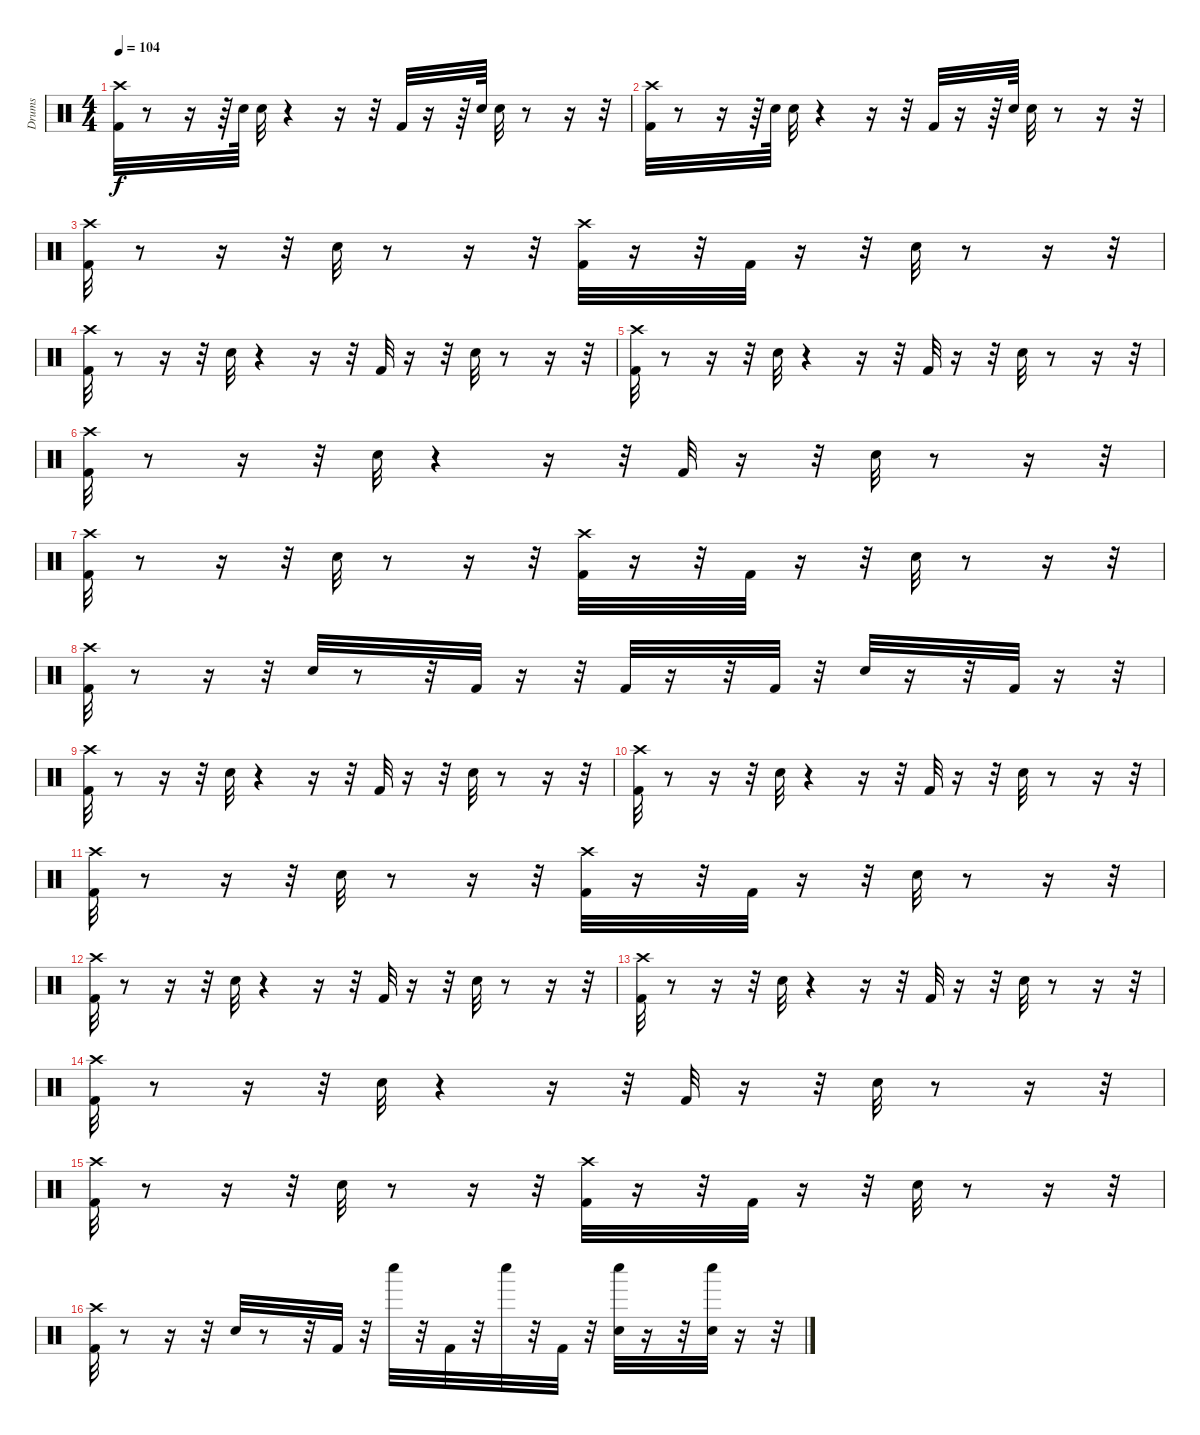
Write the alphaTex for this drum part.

\track ("Drums" "Drums") {instrument percussion}
\staff {score}
\articulation defaults
\ts (4 4)
\tempo 104
\clef neutral
\ks c
("Kick (hit) 2" "Crash high (hit)").32{dy f} r.8 r.16 r.64 "Snare (hit) 2".64 "Snare (hit) 2".32 r.4 r.16 r.32 "Kick (hit) 2".32 r.16 r.64 "Snare (hit) 2".64 "Snare (hit) 2".32 r.8 r.16 r.32 |
("Kick (hit) 2" "Crash high (hit)").32 r.8 r.16 r.64 "Snare (hit) 2".64 "Snare (hit) 2".32 r.4 r.16 r.32 "Kick (hit) 2".32 r.16 r.64 "Snare (hit) 2".64 "Snare (hit) 2".32 r.8 r.16 r.32 |
("Kick (hit) 2" "Crash high (hit)").32 r.8 r.16 r.32 "Snare (hit) 2".32 r.8 r.16 r.32 ("Kick (hit) 2" "Crash high (hit)").32 r.16 r.32 "Kick (hit) 2".32 r.16 r.32 "Snare (hit) 2".32 r.8 r.16 r.32 |
("Kick (hit) 2" "Crash high (hit)").32 r.8 r.16 r.32 "Snare (hit) 2".32 r.4 r.16 r.32 "Kick (hit) 2".32 r.16 r.32 "Snare (hit) 2".32 r.8 r.16 r.32 |
("Kick (hit) 2" "Crash high (hit)").32 r.8 r.16 r.32 "Snare (hit) 2".32 r.4 r.16 r.32 "Kick (hit) 2".32 r.16 r.32 "Snare (hit) 2".32 r.8 r.16 r.32 |
("Kick (hit) 2" "Crash high (hit)").32 r.8 r.16 r.32 "Snare (hit) 2".32 r.4 r.16 r.32 "Kick (hit) 2".32 r.16 r.32 "Snare (hit) 2".32 r.8 r.16 r.32 |
("Kick (hit) 2" "Crash high (hit)").32 r.8 r.16 r.32 "Snare (hit) 2".32 r.8 r.16 r.32 ("Kick (hit) 2" "Crash high (hit)").32 r.16 r.32 "Kick (hit) 2".32 r.16 r.32 "Snare (hit) 2".32 r.8 r.16 r.32 |
("Kick (hit) 2" "Crash high (hit)").32 r.8 r.16 r.32 "Snare (hit) 2".32 r.8 r.32 "Kick (hit) 2".32 r.16 r.32 "Kick (hit) 2".32 r.16 r.32 "Kick (hit) 2".32 r.32 "Snare (hit) 2".32 r.16 r.32 "Kick (hit) 2".32 r.16 r.32 |
("Kick (hit) 2" "Crash high (hit)").32 r.8 r.16 r.32 "Snare (hit) 2".32 r.4 r.16 r.32 "Kick (hit) 2".32 r.16 r.32 "Snare (hit) 2".32 r.8 r.16 r.32 |
("Kick (hit) 2" "Crash high (hit)").32 r.8 r.16 r.32 "Snare (hit) 2".32 r.4 r.16 r.32 "Kick (hit) 2".32 r.16 r.32 "Snare (hit) 2".32 r.8 r.16 r.32 |
("Kick (hit) 2" "Crash high (hit)").32 r.8 r.16 r.32 "Snare (hit) 2".32 r.8 r.16 r.32 ("Kick (hit) 2" "Crash high (hit)").32 r.16 r.32 "Kick (hit) 2".32 r.16 r.32 "Snare (hit) 2".32 r.8 r.16 r.32 |
("Kick (hit) 2" "Crash high (hit)").32 r.8 r.16 r.32 "Snare (hit) 2".32 r.4 r.16 r.32 "Kick (hit) 2".32 r.16 r.32 "Snare (hit) 2".32 r.8 r.16 r.32 |
("Kick (hit) 2" "Crash high (hit)").32 r.8 r.16 r.32 "Snare (hit) 2".32 r.4 r.16 r.32 "Kick (hit) 2".32 r.16 r.32 "Snare (hit) 2".32 r.8 r.16 r.32 |
("Kick (hit) 2" "Crash high (hit)").32 r.8 r.16 r.32 "Snare (hit) 2".32 r.4 r.16 r.32 "Kick (hit) 2".32 r.16 r.32 "Snare (hit) 2".32 r.8 r.16 r.32 |
("Kick (hit) 2" "Crash high (hit)").32 r.8 r.16 r.32 "Snare (hit) 2".32 r.8 r.16 r.32 ("Kick (hit) 2" "Crash high (hit)").32 r.16 r.32 "Kick (hit) 2".32 r.16 r.32 "Snare (hit) 2".32 r.8 r.16 r.32 |
("Kick (hit) 2" "Crash high (hit)").32 r.8 r.16 r.32 "Snare (hit) 2".32 r.8 r.32 "Kick (hit) 2".32 r.32 "Whistle low (hit)".32 r.32 "Kick (hit) 2".32 r.32 "Whistle low (hit)".32 r.32 "Kick (hit) 2".32 r.32 ("Snare (hit) 2" "Whistle low (hit)").32 r.16 r.32 ("Snare (hit) 2" "Whistle low (hit)").32 r.16 r.32
